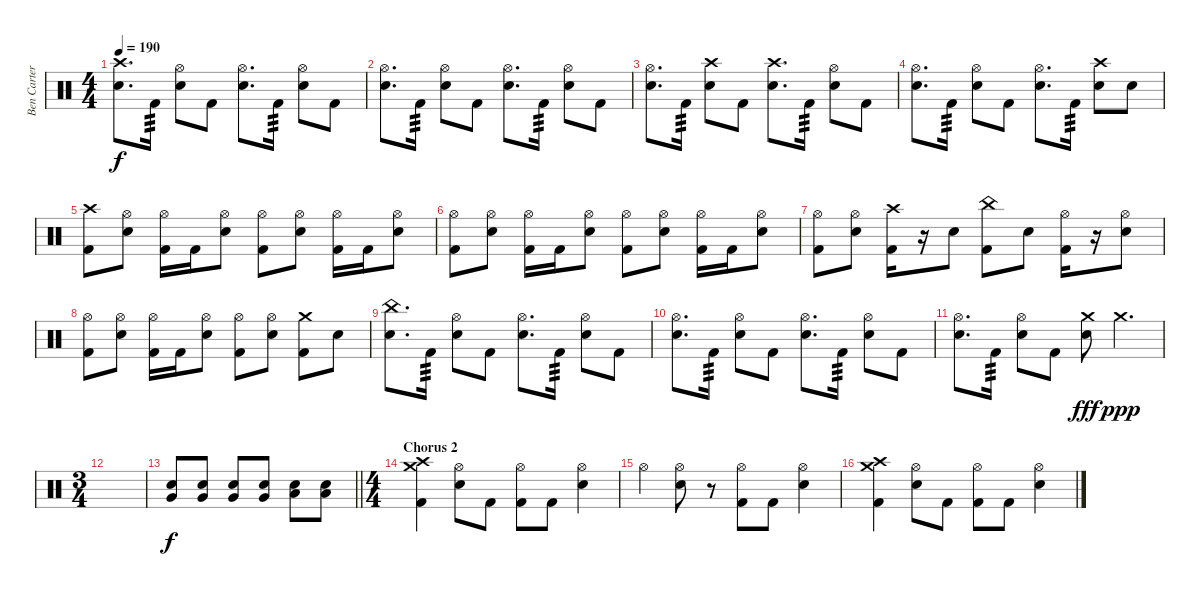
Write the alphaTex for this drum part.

\track ("Ben Carter" "Ben Carter") {instrument percussion}
\staff {score}
\articulation defaults
\ts (4 4)
\tempo 190
\clef neutral
\ks c
("Crash high (hit)" "Snare (hit) 2").8{d dy f} "Kick (hit) 2".16{tp 3} ("Hi-Hat (open)" "Snare (hit) 2").8 "Kick (hit) 2".8 ("Hi-Hat (open)" "Snare (hit) 2").8{d} "Kick (hit) 2".16{tp 3} ("Hi-Hat (open)" "Snare (hit) 2").8 "Kick (hit) 2".8 |
("Hi-Hat (open)" "Snare (hit) 2").8{d} "Kick (hit) 2".16{tp 3} ("Hi-Hat (open)" "Snare (hit) 2").8 "Kick (hit) 2".8 ("Hi-Hat (open)" "Snare (hit) 2").8{d} "Kick (hit) 2".16{tp 3} ("Hi-Hat (open)" "Snare (hit) 2").8 "Kick (hit) 2".8 |
("Hi-Hat (open)" "Snare (hit) 2").8{d} "Kick (hit) 2".16{tp 3} ("Crash high (hit)" "Snare (hit) 2").8 "Kick (hit) 2".8 ("Crash high (hit)" "Snare (hit) 2").8{d} "Kick (hit) 2".16{tp 3} ("Hi-Hat (open)" "Snare (hit) 2").8 "Kick (hit) 2".8 |
("Hi-Hat (open)" "Snare (hit) 2").8{d} "Kick (hit) 2".16{tp 3} ("Hi-Hat (open)" "Snare (hit) 2").8 "Kick (hit) 2".8 ("Hi-Hat (open)" "Snare (hit) 2").8{d} "Kick (hit) 2".16{tp 3} ("Crash high (hit)" "Snare (hit) 2").8 "Snare (hit) 2".8 |
("Crash high (hit)" "Kick (hit) 2").8 ("Hi-Hat (open)" "Snare (hit) 2").8 ("Hi-Hat (open)" "Kick (hit) 2").16 "Kick (hit) 2".16 ("Hi-Hat (open)" "Snare (hit) 2").8 ("Hi-Hat (open)" "Kick (hit) 2").8 ("Hi-Hat (open)" "Snare (hit) 2").8 ("Hi-Hat (open)" "Kick (hit) 2").16 "Kick (hit) 2".16 ("Hi-Hat (open)" "Snare (hit) 2").8 |
("Hi-Hat (open)" "Kick (hit) 2").8 ("Hi-Hat (open)" "Snare (hit) 2").8 ("Hi-Hat (open)" "Kick (hit) 2").16 "Kick (hit) 2".16 ("Hi-Hat (open)" "Snare (hit) 2").8 ("Hi-Hat (open)" "Kick (hit) 2").8 ("Hi-Hat (open)" "Snare (hit) 2").8 ("Hi-Hat (open)" "Kick (hit) 2").16 "Kick (hit) 2".16 ("Hi-Hat (open)" "Snare (hit) 2").8 |
("Hi-Hat (open)" "Kick (hit) 2").8 ("Hi-Hat (open)" "Snare (hit) 2").8 ("Crash high (hit)" "Kick (hit) 2").16 r.16 "Snare (hit) 2".8 ("China (hit)" "Kick (hit) 2").8 "Snare (hit) 2".8 ("Hi-Hat (open)" "Kick (hit) 2").16 r.16 ("Hi-Hat (open)" "Snare (hit) 2").8 |
("Hi-Hat (open)" "Kick (hit) 2").8 ("Hi-Hat (open)" "Snare (hit) 2").8 ("Hi-Hat (open)" "Kick (hit) 2").16 "Kick (hit) 2".16 ("Hi-Hat (open)" "Snare (hit) 2").8 ("Hi-Hat (open)" "Kick (hit) 2").8 ("Hi-Hat (open)" "Snare (hit) 2").8 ("Crash medium (hit)" "Kick (hit) 2").8 "Snare (hit) 2".8 |
("China (hit)" "Snare (hit) 2").8{d} "Kick (hit) 2".16{tp 3} ("Hi-Hat (open)" "Snare (hit) 2").8 "Kick (hit) 2".8 ("Hi-Hat (open)" "Snare (hit) 2").8{d} "Kick (hit) 2".16{tp 3} ("Hi-Hat (open)" "Snare (hit) 2").8 "Kick (hit) 2".8 |
("Hi-Hat (open)" "Snare (hit) 2").8{d} "Kick (hit) 2".16{tp 3} ("Hi-Hat (open)" "Snare (hit) 2").8 "Kick (hit) 2".8 ("Hi-Hat (open)" "Snare (hit) 2").8{d} "Kick (hit) 2".16{tp 3} ("Hi-Hat (open)" "Snare (hit) 2").8 "Kick (hit) 2".8 |
("Hi-Hat (open)" "Snare (hit) 2").8{d} "Kick (hit) 2".16{tp 3} ("Hi-Hat (open)" "Snare (hit) 2").8 "Kick (hit) 2".8 ("Crash medium (hit)" "Snare (hit) 2").8{dy fff} "Crash medium (hit)".4{d dy ppp} |
\ts (3 4)
|
\barLineRight lightlight
("Snare (hit) 2" "Very Low Tom (hit)").8{dy f} ("Snare (hit) 2" "Very Low Tom (hit)").8 ("Snare (hit) 2" "Very Low Tom (hit)").8 ("Snare (hit) 2" "Very Low Tom (hit)").8 ("Snare (hit) 2" "Low Floor Tom (hit)").8 ("Snare (hit) 2" "Low Floor Tom (hit)").8 |
\ts (4 4)
\section ("" "Chorus 2")
("Crash medium (hit)" "Crash high (hit)" "Kick (hit) 2").4 ("Hi-Hat (open)" "Snare (hit) 2").8 "Kick (hit) 2".8 ("Hi-Hat (open)" "Kick (hit) 2").8 "Kick (hit) 2".8 ("Hi-Hat (open)" "Snare (hit) 2").4 |
"Hi-Hat (open)".4 ("Hi-Hat (open)" "Snare (hit) 2").8 r.8 ("Hi-Hat (open)" "Kick (hit) 2").8 "Kick (hit) 2".8 ("Hi-Hat (open)" "Snare (hit) 2").4 |
("Crash medium (hit)" "Crash high (hit)" "Kick (hit) 2").4 ("Hi-Hat (open)" "Snare (hit) 2").8 "Kick (hit) 2".8 ("Hi-Hat (open)" "Kick (hit) 2").8 "Kick (hit) 2".8 ("Hi-Hat (open)" "Snare (hit) 2").4
